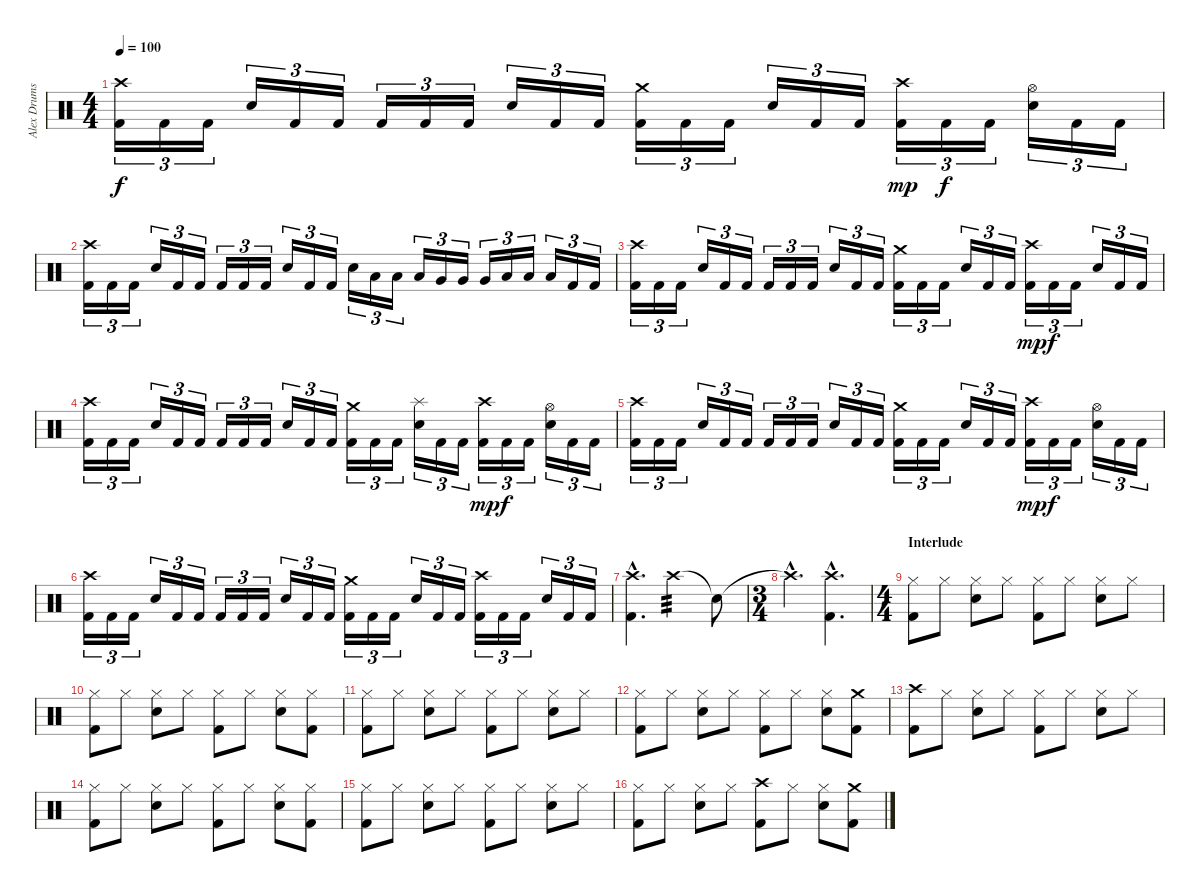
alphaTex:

\track ("Alex Drums" "Alex Drums") {instrument percussion}
\staff {score}
\articulation defaults
\ts (4 4)
\tempo 100
\clef neutral
\ks c
("Crash high (hit)" "Kick (hit) 2").16{tu (3 2) dy f} "Kick (hit) 2".16{tu (3 2)} "Kick (hit) 2".16{tu (3 2)} "Electric Snare (hit)".16{tu (3 2)} "Kick (hit) 2".16{tu (3 2)} "Kick (hit) 2".16{tu (3 2)} "Kick (hit) 2".16{tu (3 2)} "Kick (hit) 2".16{tu (3 2)} "Kick (hit) 2".16{tu (3 2)} "Electric Snare (hit)".16{tu (3 2)} "Kick (hit) 2".16{tu (3 2)} "Kick (hit) 2".16{tu (3 2)} ("Crash medium (hit)" "Kick (hit) 2").16{tu (3 2)} "Kick (hit) 2".16{tu (3 2)} "Kick (hit) 2".16{tu (3 2)} "Electric Snare (hit)".16{tu (3 2)} "Kick (hit) 2".16{tu (3 2)} "Kick (hit) 2".16{tu (3 2)} ("Crash high (hit)" "Kick (hit) 2").16{tu (3 2) dy mp} "Kick (hit) 2".16{tu (3 2) dy f} "Kick (hit) 2".16{tu (3 2)} ("Hi-Hat (open)" "Electric Snare (hit)").16{tu (3 2)} "Kick (hit) 2".16{tu (3 2)} "Kick (hit) 2".16{tu (3 2)} |
("Crash high (hit)" "Kick (hit) 2").16{tu (3 2)} "Kick (hit) 2".16{tu (3 2)} "Kick (hit) 2".16{tu (3 2)} "Electric Snare (hit)".16{tu (3 2)} "Kick (hit) 2".16{tu (3 2)} "Kick (hit) 2".16{tu (3 2)} "Kick (hit) 2".16{tu (3 2)} "Kick (hit) 2".16{tu (3 2)} "Kick (hit) 2".16{tu (3 2)} "Electric Snare (hit)".16{tu (3 2)} "Kick (hit) 2".16{tu (3 2)} "Kick (hit) 2".16{tu (3 2)} "Electric Snare (hit)".16{tu (3 2)} "Low Tom (hit)".16{tu (3 2)} "Low Tom (hit)".16{tu (3 2)} "Low Tom (hit)".16{tu (3 2)} "Very Low Tom (hit)".16{tu (3 2)} "Very Low Tom (hit)".16{tu (3 2)} "Very Low Tom (hit)".16{tu (3 2)} "Low Floor Tom (hit)".16{tu (3 2)} "Low Floor Tom (hit)".16{tu (3 2)} "Low Floor Tom (hit)".16{tu (3 2)} "Kick (hit) 2".16{tu (3 2)} "Kick (hit) 2".16{tu (3 2)} |
("Crash high (hit)" "Kick (hit) 2").16{tu (3 2)} "Kick (hit) 2".16{tu (3 2)} "Kick (hit) 2".16{tu (3 2)} "Electric Snare (hit)".16{tu (3 2)} "Kick (hit) 2".16{tu (3 2)} "Kick (hit) 2".16{tu (3 2)} "Kick (hit) 2".16{tu (3 2)} "Kick (hit) 2".16{tu (3 2)} "Kick (hit) 2".16{tu (3 2)} "Electric Snare (hit)".16{tu (3 2)} "Kick (hit) 2".16{tu (3 2)} "Kick (hit) 2".16{tu (3 2)} ("Crash medium (hit)" "Kick (hit) 2").16{tu (3 2)} "Kick (hit) 2".16{tu (3 2)} "Kick (hit) 2".16{tu (3 2)} "Electric Snare (hit)".16{tu (3 2)} "Kick (hit) 2".16{tu (3 2)} "Kick (hit) 2".16{tu (3 2)} ("Crash high (hit)" "Kick (hit) 2").16{tu (3 2) dy mp} "Kick (hit) 2".16{tu (3 2) dy f} "Kick (hit) 2".16{tu (3 2)} "Electric Snare (hit)".16{tu (3 2)} "Kick (hit) 2".16{tu (3 2)} "Kick (hit) 2".16{tu (3 2)} |
("Crash high (hit)" "Kick (hit) 2").16{tu (3 2)} "Kick (hit) 2".16{tu (3 2)} "Kick (hit) 2".16{tu (3 2)} "Electric Snare (hit)".16{tu (3 2)} "Kick (hit) 2".16{tu (3 2)} "Kick (hit) 2".16{tu (3 2)} "Kick (hit) 2".16{tu (3 2)} "Kick (hit) 2".16{tu (3 2)} "Kick (hit) 2".16{tu (3 2)} "Electric Snare (hit)".16{tu (3 2)} "Kick (hit) 2".16{tu (3 2)} "Kick (hit) 2".16{tu (3 2)} ("Crash medium (hit)" "Kick (hit) 2").16{tu (3 2)} "Kick (hit) 2".16{tu (3 2)} "Kick (hit) 2".16{tu (3 2)} ("Splash (hit)" "Electric Snare (hit)").16{tu (3 2)} "Kick (hit) 2".16{tu (3 2)} "Kick (hit) 2".16{tu (3 2)} ("Crash high (hit)" "Kick (hit) 2").16{tu (3 2) dy mp} "Kick (hit) 2".16{tu (3 2) dy f} "Kick (hit) 2".16{tu (3 2)} ("Hi-Hat (open)" "Electric Snare (hit)").16{tu (3 2)} "Kick (hit) 2".16{tu (3 2)} "Kick (hit) 2".16{tu (3 2)} |
("Crash high (hit)" "Kick (hit) 2").16{tu (3 2)} "Kick (hit) 2".16{tu (3 2)} "Kick (hit) 2".16{tu (3 2)} "Electric Snare (hit)".16{tu (3 2)} "Kick (hit) 2".16{tu (3 2)} "Kick (hit) 2".16{tu (3 2)} "Kick (hit) 2".16{tu (3 2)} "Kick (hit) 2".16{tu (3 2)} "Kick (hit) 2".16{tu (3 2)} "Electric Snare (hit)".16{tu (3 2)} "Kick (hit) 2".16{tu (3 2)} "Kick (hit) 2".16{tu (3 2)} ("Crash medium (hit)" "Kick (hit) 2").16{tu (3 2)} "Kick (hit) 2".16{tu (3 2)} "Kick (hit) 2".16{tu (3 2)} "Electric Snare (hit)".16{tu (3 2)} "Kick (hit) 2".16{tu (3 2)} "Kick (hit) 2".16{tu (3 2)} ("Crash high (hit)" "Kick (hit) 2").16{tu (3 2) dy mp} "Kick (hit) 2".16{tu (3 2) dy f} "Kick (hit) 2".16{tu (3 2)} ("Hi-Hat (open)" "Electric Snare (hit)").16{tu (3 2)} "Kick (hit) 2".16{tu (3 2)} "Kick (hit) 2".16{tu (3 2)} |
("Crash high (hit)" "Kick (hit) 2").16{tu (3 2)} "Kick (hit) 2".16{tu (3 2)} "Kick (hit) 2".16{tu (3 2)} "Electric Snare (hit)".16{tu (3 2)} "Kick (hit) 2".16{tu (3 2)} "Kick (hit) 2".16{tu (3 2)} "Kick (hit) 2".16{tu (3 2)} "Kick (hit) 2".16{tu (3 2)} "Kick (hit) 2".16{tu (3 2)} "Electric Snare (hit)".16{tu (3 2)} "Kick (hit) 2".16{tu (3 2)} "Kick (hit) 2".16{tu (3 2)} ("Crash medium (hit)" "Kick (hit) 2").16{tu (3 2)} "Kick (hit) 2".16{tu (3 2)} "Kick (hit) 2".16{tu (3 2)} "Electric Snare (hit)".16{tu (3 2)} "Kick (hit) 2".16{tu (3 2)} "Kick (hit) 2".16{tu (3 2)} ("Crash high (hit)" "Kick (hit) 2").16{tu (3 2)} "Kick (hit) 2".16{tu (3 2)} "Kick (hit) 2".16{tu (3 2)} "Electric Snare (hit)".16{tu (3 2)} "Kick (hit) 2".16{tu (3 2)} "Kick (hit) 2".16{tu (3 2)} |
("Crash high (hit)"{hac} "Kick (hit) 2"{hac}).4{d} "Crash high (hit)".2{tp 3} "Snare (hit)"{t}.8 |
\ts (3 4)
"Crash high (hit)"{hac t}.4{d} ("Crash high (hit)"{hac} "Kick (hit) 2"{hac}).4{d} |
\ts (4 4)
\section ("" "Interlude")
("Hi-Hat (closed)" "Kick (hit) 2").8 "Hi-Hat (closed)".8 ("Hi-Hat (closed)" "Electric Snare (hit)").8 "Hi-Hat (closed)".8 ("Hi-Hat (closed)" "Kick (hit) 2").8 "Hi-Hat (closed)".8 ("Hi-Hat (closed)" "Electric Snare (hit)").8 "Hi-Hat (closed)".8 |
("Hi-Hat (closed)" "Kick (hit) 2").8 "Hi-Hat (closed)".8 ("Hi-Hat (closed)" "Electric Snare (hit)").8 "Hi-Hat (closed)".8 ("Hi-Hat (closed)" "Kick (hit) 2").8 "Hi-Hat (closed)".8 ("Hi-Hat (closed)" "Electric Snare (hit)").8 ("Hi-Hat (closed)" "Kick (hit) 2").8 |
("Hi-Hat (closed)" "Kick (hit) 2").8 "Hi-Hat (closed)".8 ("Hi-Hat (closed)" "Electric Snare (hit)").8 "Hi-Hat (closed)".8 ("Hi-Hat (closed)" "Kick (hit) 2").8 "Hi-Hat (closed)".8 ("Hi-Hat (closed)" "Electric Snare (hit)").8 "Hi-Hat (closed)".8 |
("Hi-Hat (closed)" "Kick (hit) 2").8 "Hi-Hat (closed)".8 ("Hi-Hat (closed)" "Electric Snare (hit)").8 "Hi-Hat (closed)".8 ("Hi-Hat (closed)" "Kick (hit) 2").8 "Hi-Hat (closed)".8 ("Hi-Hat (closed)" "Electric Snare (hit)").8 ("Crash medium (hit)" "Kick (hit) 2").8 |
("Crash high (hit)" "Kick (hit) 2").8 "Hi-Hat (closed)".8 ("Hi-Hat (closed)" "Electric Snare (hit)").8 "Hi-Hat (closed)".8 ("Hi-Hat (closed)" "Kick (hit) 2").8 "Hi-Hat (closed)".8 ("Hi-Hat (closed)" "Electric Snare (hit)").8 "Hi-Hat (closed)".8 |
("Hi-Hat (closed)" "Kick (hit) 2").8 "Hi-Hat (closed)".8 ("Hi-Hat (closed)" "Electric Snare (hit)").8 "Hi-Hat (closed)".8 ("Hi-Hat (closed)" "Kick (hit) 2").8 "Hi-Hat (closed)".8 ("Hi-Hat (closed)" "Electric Snare (hit)").8 ("Hi-Hat (closed)" "Kick (hit) 2").8 |
("Hi-Hat (closed)" "Kick (hit) 2").8 "Hi-Hat (closed)".8 ("Hi-Hat (closed)" "Electric Snare (hit)").8 "Hi-Hat (closed)".8 ("Hi-Hat (closed)" "Kick (hit) 2").8 "Hi-Hat (closed)".8 ("Hi-Hat (closed)" "Electric Snare (hit)").8 "Hi-Hat (closed)".8 |
("Hi-Hat (closed)" "Kick (hit) 2").8 "Hi-Hat (closed)".8 ("Hi-Hat (closed)" "Electric Snare (hit)").8 "Hi-Hat (closed)".8 ("Crash high (hit)" "Kick (hit) 2").8 "Hi-Hat (closed)".8 ("Hi-Hat (closed)" "Electric Snare (hit)").8 ("Crash medium (hit)" "Kick (hit) 2").8
